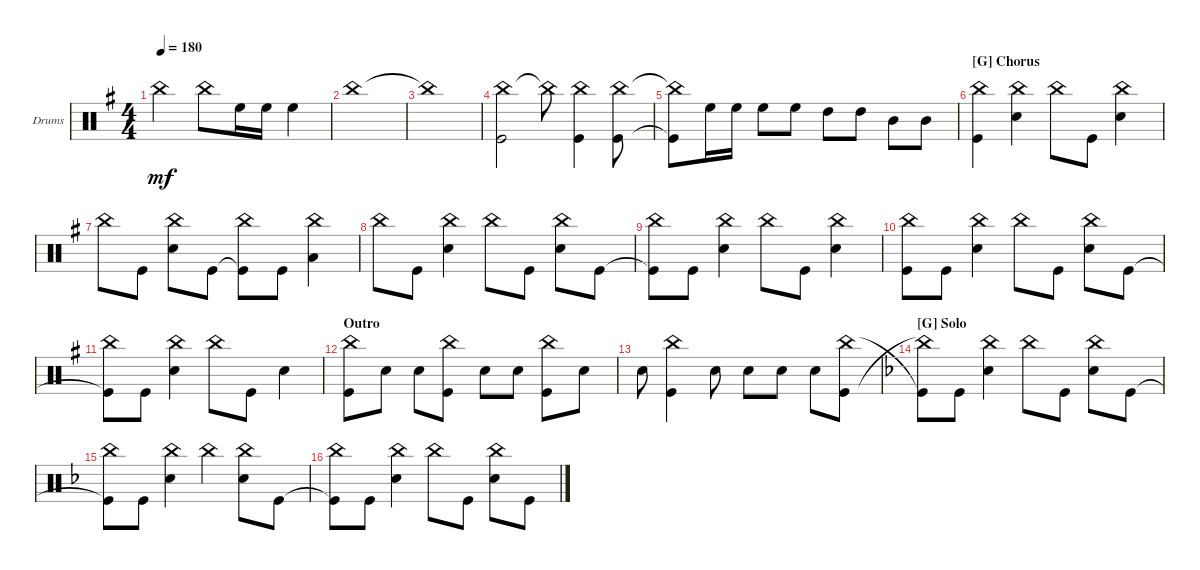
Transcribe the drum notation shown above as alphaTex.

\defaultSystemsLayout 4
\bracketExtendMode groupsimilarinstruments
\firstSystemTrackNameOrientation horizontal
\otherSystemsTrackNameOrientation horizontal
\track ("Drumkit" "Drums") {instrument percussion}
\staff {score}
\articulation defaults
\ts (4 4)
\tempo 180
\clef neutral
\scale
0.333333
\ks g "China (hit)".2{dy mf} "China (hit)".8 "High Floor Tom (hit)".16 "High Floor Tom (hit)".16 "High Floor Tom (hit)".4
|
\scale
0.333333 "China (hit)".1 |
\scale
0.333333 "China (hit)"{t}.1 |
\scale
0.333333 ("China (hit)" "Kick (hit)").2 "China (hit)"{t}.8 ("China (hit)" "Kick (hit)").4 ("Kick (hit)" "China (hit)").8 |
\scale
0.333333 ("Kick (hit)"{t} "China (hit)"{t}).8 "High Floor Tom (hit)".16 "High Floor Tom (hit)".16 "High Floor Tom (hit)".8 "High Floor Tom (hit)".8 "High Tom (hit)".8 "High Tom (hit)".8 "Mid Tom (hit)".8 "Mid Tom (hit)".8 |
\section ("G" "Chorus")
\scale
0.333333 ("Kick (hit)" "China (hit)").4 ("Snare (hit) 2" "China (hit)").4 "China (hit)".8 "Kick (hit)".8 ("Snare (hit) 2" "China (hit)").4 |
\scale
0.333333 "China (hit)".8 "Kick (hit)".8 ("Snare (hit) 2" "China (hit)").8 "Kick (hit)".8 ("Kick (hit)"{t} "China (hit)").8 "Kick (hit)".8 ("Low Tom (hit)" "China (hit)").4 |
\scale
0.333333 "China (hit)".8 "Kick (hit)".8 ("Snare (hit) 2" "China (hit)").4 "China (hit)".8 "Kick (hit)".8 ("Snare (hit) 2" "China (hit)").8 "Kick (hit)".8 |
\scale
0.333333 ("Kick (hit)"{t} "China (hit)").8 "Kick (hit)".8 ("Snare (hit) 2" "China (hit)").4 "China (hit)".8 "Kick (hit)".8 ("Snare (hit) 2" "China (hit)").4 |
\scale
0.333333 ("China (hit)" "Kick (hit)").8 "Kick (hit)".8 ("China (hit)" "Snare (hit) 2").4 "China (hit)".8 "Kick (hit)".8 ("China (hit)" "Snare (hit) 2").8 "Kick (hit)".8 |
\scale
0.333333 ("Kick (hit)"{t} "China (hit)").8 "Kick (hit)".8 ("Snare (hit) 2" "China (hit)").4 "China (hit)".8 "Kick (hit)".8 "Snare (hit) 2".4 |
\section ("" "Outro")
\scale
0.265403 ("Kick (hit)" "China (hit)").8 "Snare (hit) 2".8 "Snare (hit) 2".8 ("China (hit)" "Kick (hit)").8 "Snare (hit) 2".8 "Snare (hit) 2".8 ("Kick (hit)" "China (hit)").8 "Snare (hit) 2".8 |
\scale
0.265403 "Snare (hit) 2".8 ("China (hit)" "Kick (hit)").4 "Snare (hit) 2".8 "Snare (hit) 2".8 "Snare (hit) 2".8 "Snare (hit) 2".8 ("China (hit)" "Kick (hit)").8 |
\section ("G" "Solo")
\scale
0.469194
\ks f
("Kick (hit)"{t} "China (hit)"{t}).8 "Kick (hit)".8 ("Snare (hit) 2" "China (hit)").4 "China (hit)".8 "Kick (hit)".8 ("Snare (hit) 2" "China (hit)").8 "Kick (hit)".8 |
\scale
0.333333 ("Kick (hit)"{t} "China (hit)").8 "Kick (hit)".8 ("China (hit)" "Snare (hit) 2").4 "China (hit)".4 ("Snare (hit) 2" "China (hit)").8 "Kick (hit)".8 |
\scale
0.333333 ("Kick (hit)"{t} "China (hit)").8 "Kick (hit)".8 ("Snare (hit) 2" "China (hit)").4 "China (hit)".8 "Kick (hit)".8 ("Snare (hit) 2" "China (hit)").8 "Kick (hit)".8
